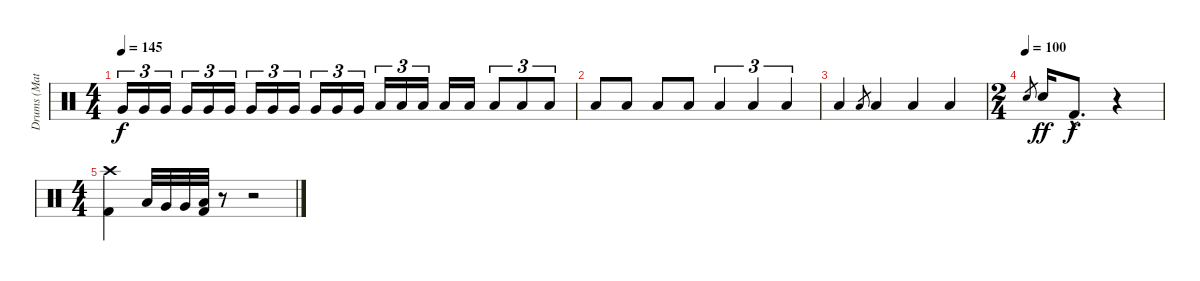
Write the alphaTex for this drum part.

\track ("Drums (Matt)" "Drums (Mat") {instrument percussion}
\staff {score}
\articulation defaults
\ts (4 4)
\tempo 145
\clef neutral
\ks c "Very Low Tom (hit)".16{tu (3 2) dy f} "Very Low Tom (hit)".16{tu (3 2)} "Very Low Tom (hit)".16{tu (3 2)} "Very Low Tom (hit)".16{tu (3 2)} "Very Low Tom (hit)".16{tu (3 2)} "Very Low Tom (hit)".16{tu (3 2)} "Very Low Tom (hit)".16{tu (3 2)} "Very Low Tom (hit)".16{tu (3 2)} "Very Low Tom (hit)".16{tu (3 2)} "Very Low Tom (hit)".16{tu (3 2)} "Very Low Tom (hit)".16{tu (3 2)} "Very Low Tom (hit)".16{tu (3 2)} "Low Floor Tom (hit)".16{tu (3 2)} "Low Floor Tom (hit)".16{tu (3 2)} "Low Floor Tom (hit)".16{tu (3 2)} "Low Floor Tom (hit)".16 "Low Floor Tom (hit)".16 "Low Floor Tom (hit)".8{tu (3 2)} "Low Floor Tom (hit)".8{tu (3 2)} "Low Floor Tom (hit)".8{tu (3 2)}
|
"Low Floor Tom (hit)".8 "Low Floor Tom (hit)".8 "Low Floor Tom (hit)".8 "Low Floor Tom (hit)".8 "Low Floor Tom (hit)".4{tu (3 2)} "Low Floor Tom (hit)".4{tu (3 2)} "Low Floor Tom (hit)".4{tu (3 2)} |
"Low Floor Tom (hit)".4 "Low Floor Tom (hit)".8{gr} "Low Floor Tom (hit)".4 "Low Floor Tom (hit)".4 "Low Floor Tom (hit)".4 |
\ts (2 4)
\tempo (100)
"Snare (hit) 2".8{gr} "Snare (hit) 2".16{dy ff} "Kick (hit) 2"{hac}.8{d dy f} r.4 |
\ts (4 4)
("Crash high (hit)" "Kick (hit) 2").4 "Low Tom (hit)".32 "Very Low Tom (hit)".32 "Very Low Tom (hit)".32 ("Low Floor Tom (hit)" "Kick (hit) 2").32 r.8 r.2
